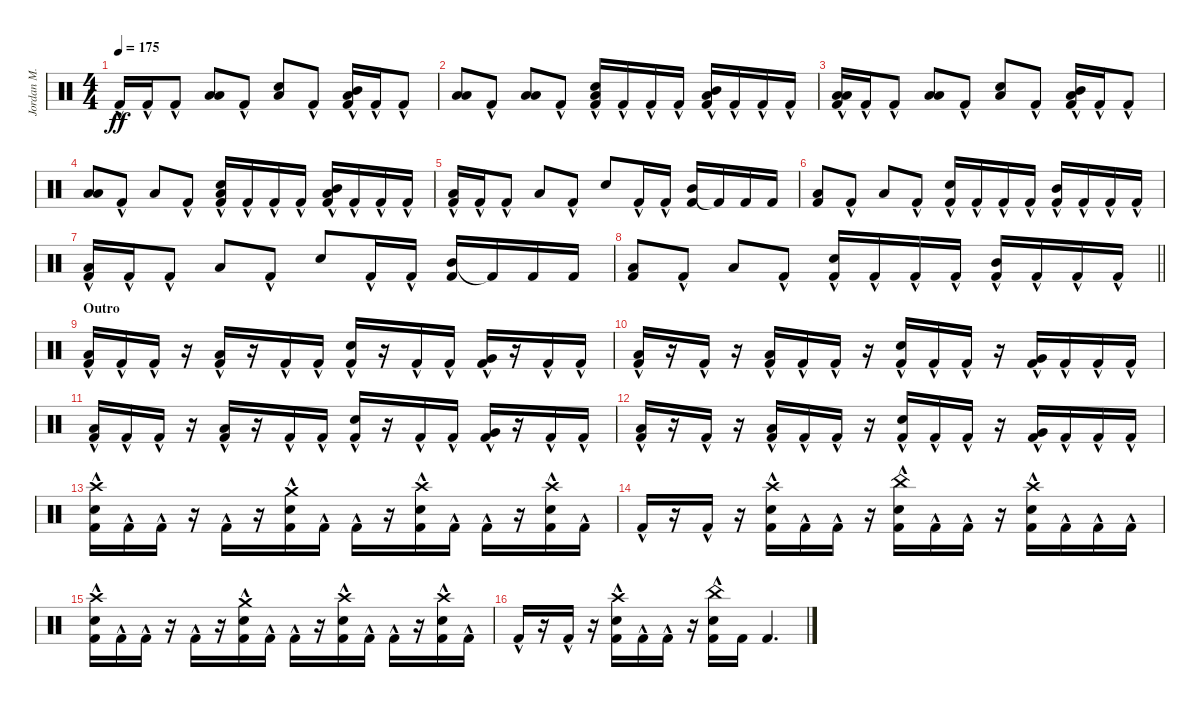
\track ("Jordan M." "Jordan M.") {instrument percussion}
\staff {score}
\articulation defaults
\ts (4 4)
\tempo 175
\clef neutral
\ks c "Kick (hit) 2"{hac}.16{dy ff} "Kick (hit) 2"{hac}.16 "Kick (hit) 2"{hac}.8
("Low Floor Tom (hit)" "Low Tom (hit)").8 "Kick (hit) 2"{hac}.8 ("Low Floor Tom (hit)" "Electric Snare (hit)").8 "Kick (hit) 2"{hac}.8 ("Low Floor Tom (hit)" "Mid Tom (hit)" "Kick (hit) 2"{hac}).16 "Kick (hit) 2"{hac}.16 "Kick (hit) 2"{hac}.8 |
("Low Floor Tom (hit)" "Low Tom (hit)").8 "Kick (hit) 2"{hac}.8 ("Low Floor Tom (hit)" "Low Tom (hit)").8 "Kick (hit) 2"{hac}.8 ("Low Floor Tom (hit)" "Electric Snare (hit)" "Kick (hit) 2"{hac}).16 "Kick (hit) 2"{hac}.16 "Kick (hit) 2"{hac}.16 "Kick (hit) 2"{hac}.16 ("Low Floor Tom (hit)" "Mid Tom (hit)" "Kick (hit) 2"{hac}).16 "Kick (hit) 2"{hac}.16 "Kick (hit) 2"{hac}.16 "Kick (hit) 2"{hac}.16 |
("Low Floor Tom (hit)" "Low Tom (hit)" "Kick (hit) 2"{hac}).16 "Kick (hit) 2"{hac}.16 "Kick (hit) 2"{hac}.8 ("Low Floor Tom (hit)" "Low Tom (hit)").8 "Kick (hit) 2"{hac}.8 ("Low Floor Tom (hit)" "Electric Snare (hit)").8 "Kick (hit) 2"{hac}.8 ("Low Floor Tom (hit)" "Mid Tom (hit)" "Kick (hit) 2"{hac}).16 "Kick (hit) 2"{hac}.16 "Kick (hit) 2"{hac}.8 |
("Low Floor Tom (hit)" "Low Tom (hit)").8 "Kick (hit) 2"{hac}.8 "Low Tom (hit)".8 "Kick (hit) 2"{hac}.8 ("Low Floor Tom (hit)" "Electric Snare (hit)" "Kick (hit) 2"{hac}).16 "Kick (hit) 2"{hac}.16 "Kick (hit) 2"{hac}.16 "Kick (hit) 2"{hac}.16 ("Low Floor Tom (hit)" "Mid Tom (hit)" "Kick (hit) 2"{hac}).16 "Kick (hit) 2"{hac}.16 "Kick (hit) 2"{hac}.16 "Kick (hit) 2"{hac}.16 |
("Low Tom (hit)" "Kick (hit) 2"{hac}).16 "Kick (hit) 2"{hac}.16 "Kick (hit) 2"{hac}.8 "Low Tom (hit)".8 "Kick (hit) 2"{hac}.8 "Electric Snare (hit)".8 "Kick (hit) 2"{hac}.16 "Kick (hit) 2"{hac}.16 ("Mid Tom (hit)" "Kick (hit) 2").16 "Kick (hit) 2"{t}.16 "Kick (hit) 2".16 "Kick (hit) 2".16 |
("Low Tom (hit)" "Kick (hit) 2").8 "Kick (hit) 2"{hac}.8 "Low Tom (hit)".8 "Kick (hit) 2"{hac}.8 ("Electric Snare (hit)" "Kick (hit) 2"{hac}).16 "Kick (hit) 2"{hac}.16 "Kick (hit) 2"{hac}.16 "Kick (hit) 2"{hac}.16 ("Mid Tom (hit)" "Kick (hit) 2"{hac}).16 "Kick (hit) 2"{hac}.16 "Kick (hit) 2"{hac}.16 "Kick (hit) 2"{hac}.16 |
("Low Tom (hit)" "Kick (hit) 2"{hac}).16 "Kick (hit) 2"{hac}.16 "Kick (hit) 2"{hac}.8 "Low Tom (hit)".8 "Kick (hit) 2"{hac}.8 "Electric Snare (hit)".8 "Kick (hit) 2"{hac}.16 "Kick (hit) 2"{hac}.16 ("Mid Tom (hit)" "Kick (hit) 2").16 "Kick (hit) 2"{t}.16 "Kick (hit) 2".16 "Kick (hit) 2".16 |
\barLineRight lightlight
("Low Tom (hit)" "Kick (hit) 2").8 "Kick (hit) 2"{hac}.8 "Low Tom (hit)".8 "Kick (hit) 2"{hac}.8 ("Electric Snare (hit)" "Kick (hit) 2"{hac}).16 "Kick (hit) 2"{hac}.16 "Kick (hit) 2"{hac}.16 "Kick (hit) 2"{hac}.16 ("Mid Tom (hit)" "Kick (hit) 2"{hac}).16 "Kick (hit) 2"{hac}.16 "Kick (hit) 2"{hac}.16 "Kick (hit) 2"{hac}.16 |
\section ("" "Outro")
("Low Floor Tom (hit)" "Kick (hit) 2"{hac}).16 "Kick (hit) 2"{hac}.16 "Kick (hit) 2"{hac}.16 r.16 ("Low Floor Tom (hit)" "Kick (hit) 2"{hac}).16 r.16 "Kick (hit) 2"{hac}.16 "Kick (hit) 2"{hac}.16 ("Electric Snare (hit)" "Kick (hit) 2"{hac}).16 r.16 "Kick (hit) 2"{hac}.16 "Kick (hit) 2"{hac}.16 ("Very Low Tom (hit)" "Kick (hit) 2"{hac}).16 r.16 "Kick (hit) 2"{hac}.16 "Kick (hit) 2"{hac}.16 |
("Low Floor Tom (hit)" "Kick (hit) 2"{hac}).16 r.16 "Kick (hit) 2"{hac}.16 r.16 ("Low Floor Tom (hit)" "Kick (hit) 2"{hac}).16 "Kick (hit) 2"{hac}.16 "Kick (hit) 2"{hac}.16 r.16 ("Electric Snare (hit)" "Kick (hit) 2"{hac}).16 "Kick (hit) 2"{hac}.16 "Kick (hit) 2"{hac}.16 r.16 ("Very Low Tom (hit)" "Kick (hit) 2"{hac}).16 "Kick (hit) 2"{hac}.16 "Kick (hit) 2"{hac}.16 "Kick (hit) 2"{hac}.16 |
("Low Floor Tom (hit)" "Kick (hit) 2"{hac}).16 "Kick (hit) 2"{hac}.16 "Kick (hit) 2"{hac}.16 r.16 ("Low Floor Tom (hit)" "Kick (hit) 2"{hac}).16 r.16 "Kick (hit) 2"{hac}.16 "Kick (hit) 2"{hac}.16 ("Electric Snare (hit)" "Kick (hit) 2"{hac}).16 r.16 "Kick (hit) 2"{hac}.16 "Kick (hit) 2"{hac}.16 ("Very Low Tom (hit)" "Kick (hit) 2"{hac}).16 r.16 "Kick (hit) 2"{hac}.16 "Kick (hit) 2"{hac}.16 |
("Low Floor Tom (hit)" "Kick (hit) 2"{hac}).16 r.16 "Kick (hit) 2"{hac}.16 r.16 ("Low Floor Tom (hit)" "Kick (hit) 2"{hac}).16 "Kick (hit) 2"{hac}.16 "Kick (hit) 2"{hac}.16 r.16 ("Electric Snare (hit)" "Kick (hit) 2"{hac}).16 "Kick (hit) 2"{hac}.16 "Kick (hit) 2"{hac}.16 r.16 ("Very Low Tom (hit)" "Kick (hit) 2"{hac}).16 "Kick (hit) 2"{hac}.16 "Kick (hit) 2"{hac}.16 "Kick (hit) 2"{hac}.16 |
("Crash high (hit)" "Electric Snare (hit)" "Kick (hit) 2"{hac}).16 "Kick (hit) 2"{hac}.16 "Kick (hit) 2"{hac}.16 r.16 "Kick (hit) 2"{hac}.16 r.16 ("Crash medium (hit)" "Electric Snare (hit)" "Kick (hit) 2"{hac}).16 "Kick (hit) 2"{hac}.16 "Kick (hit) 2"{hac}.16 r.16 ("Crash high (hit)" "Electric Snare (hit)" "Kick (hit) 2"{hac}).16 "Kick (hit) 2"{hac}.16 "Kick (hit) 2"{hac}.16 r.16 ("Crash high (hit)" "Electric Snare (hit)" "Kick (hit) 2"{hac}).16 "Kick (hit) 2"{hac}.16 |
"Kick (hit) 2"{hac}.16 r.16 "Kick (hit) 2"{hac}.16 r.16 ("Crash high (hit)" "Electric Snare (hit)" "Kick (hit) 2"{hac}).16 "Kick (hit) 2"{hac}.16 "Kick (hit) 2"{hac}.16 r.16 ("China (hit)" "Electric Snare (hit)" "Kick (hit) 2"{hac}).16 "Kick (hit) 2"{hac}.16 "Kick (hit) 2"{hac}.16 r.16 ("Crash high (hit)" "Electric Snare (hit)" "Kick (hit) 2"{hac}).16 "Kick (hit) 2"{hac}.16 "Kick (hit) 2"{hac}.16 "Kick (hit) 2"{hac}.16 |
("Crash high (hit)" "Electric Snare (hit)" "Kick (hit) 2"{hac}).16 "Kick (hit) 2"{hac}.16 "Kick (hit) 2"{hac}.16 r.16 "Kick (hit) 2"{hac}.16 r.16 ("Crash medium (hit)" "Electric Snare (hit)" "Kick (hit) 2"{hac}).16 "Kick (hit) 2"{hac}.16 "Kick (hit) 2"{hac}.16 r.16 ("Crash high (hit)" "Electric Snare (hit)" "Kick (hit) 2"{hac}).16 "Kick (hit) 2"{hac}.16 "Kick (hit) 2"{hac}.16 r.16 ("Crash high (hit)" "Electric Snare (hit)" "Kick (hit) 2"{hac}).16 "Kick (hit) 2"{hac}.16 |
"Kick (hit) 2"{hac}.16 r.16 "Kick (hit) 2"{hac}.16 r.16 ("Crash high (hit)" "Electric Snare (hit)" "Kick (hit) 2"{hac}).16 "Kick (hit) 2"{hac}.16 "Kick (hit) 2"{hac}.16 r.16 ("China (hit)" "Electric Snare (hit)" "Kick (hit) 2"{hac}).16 "Kick (hit) 2".16 "Kick (hit) 2".4{d}
